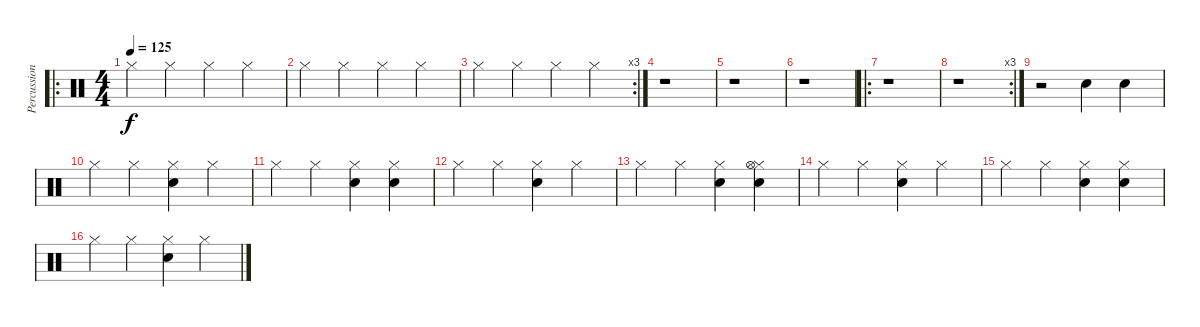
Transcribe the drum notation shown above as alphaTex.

\track ("Percussion" "Percussion") {instrument percussion}
\staff {score}
\articulation defaults
\ro
\ts (4 4)
\tempo 125
\clef neutral
\ks c "Hi-Hat (closed)".4{dy f} "Hi-Hat (closed)".4 "Hi-Hat (closed)".4 "Hi-Hat (closed)".4
|
"Hi-Hat (closed)".4 "Hi-Hat (closed)".4 "Hi-Hat (closed)".4 "Hi-Hat (closed)".4 |
\rc 3 "Hi-Hat (closed)".4 "Hi-Hat (closed)".4 "Hi-Hat (closed)".4 "Hi-Hat (closed)".4
|
r.1 |
r.1 |
r.1 |
\ro
r.1 |
\rc 3
r.1 |
r.2 "Snare (hit) 2".4 "Snare (hit) 2".4 |
"Hi-Hat (closed)".4 "Hi-Hat (closed)".4 ("Hi-Hat (closed)" "Snare (hit) 2").4 "Hi-Hat (closed)".4 |
"Hi-Hat (closed)".4 "Hi-Hat (closed)".4 ("Hi-Hat (closed)" "Snare (hit) 2").4 ("Hi-Hat (closed)" "Snare (hit) 2").4 |
"Hi-Hat (closed)".4 "Hi-Hat (closed)".4 ("Hi-Hat (closed)" "Snare (hit) 2").4 "Hi-Hat (closed)".4 |
"Hi-Hat (closed)".4 "Hi-Hat (closed)".4 ("Hi-Hat (closed)" "Snare (hit) 2").4 ("Hi-Hat (closed)" "Snare (hit) 2" "Hi-Hat (open)").4 |
"Hi-Hat (closed)".4 "Hi-Hat (closed)".4 ("Hi-Hat (closed)" "Snare (hit) 2").4 "Hi-Hat (closed)".4 |
"Hi-Hat (closed)".4 "Hi-Hat (closed)".4 ("Hi-Hat (closed)" "Snare (hit) 2").4 ("Hi-Hat (closed)" "Snare (hit) 2").4 |
"Hi-Hat (closed)".4 "Hi-Hat (closed)".4 ("Hi-Hat (closed)" "Snare (hit) 2").4 "Hi-Hat (closed)".4
